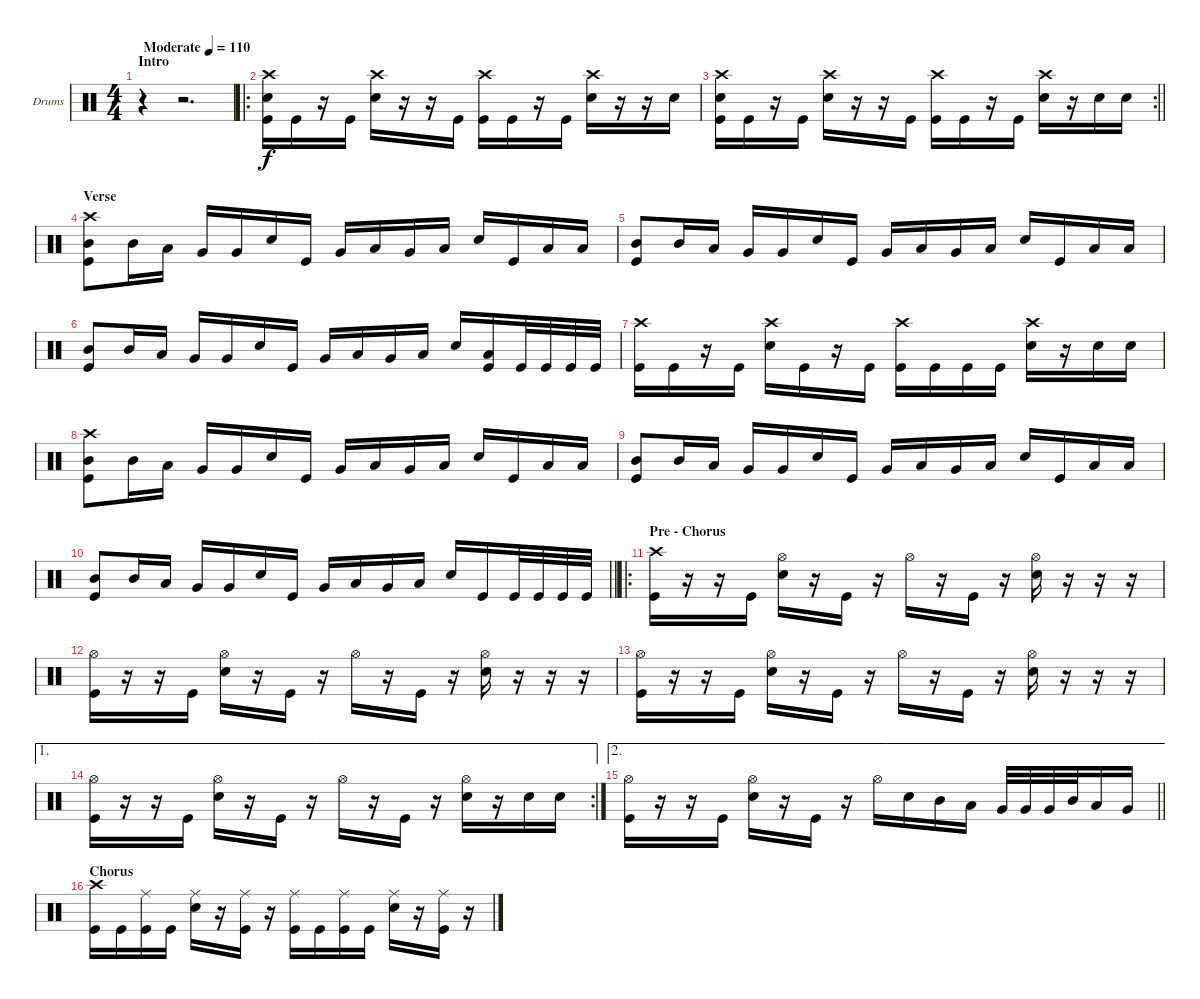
\bracketExtendMode groupsimilarinstruments
\firstSystemTrackNameOrientation horizontal
\otherSystemsTrackNameOrientation horizontal
\track ("Drumkit" "Drums") {instrument percussion}
\staff {score}
\articulation defaults
\ts (4 4)
\beaming (8 2 2 2 2)
\section ("" "Intro")
\tempo (110 "Moderate")
\clef neutral
\ks c
r.4{dy f} r.2{d} |
\ro
("Crash high (hit)" "Snare (hit) 2" "Kick (hit)").16 "Kick (hit)".16 r.16 "Kick (hit)".16 ("Crash high (hit)" "Snare (hit) 2").16 r.16 r.16 "Kick (hit)".16 ("Crash high (hit)" "Kick (hit)").16 "Kick (hit)".16 r.16 "Kick (hit)".16 ("Crash high (hit)" "Snare (hit) 2").16 r.16 r.16 "Snare (hit) 2".16 |
\rc 2
\barLineRight lightlight
("Crash high (hit)" "Snare (hit) 2" "Kick (hit)").16 "Kick (hit)".16 r.16 "Kick (hit)".16 ("Crash high (hit)" "Snare (hit) 2").16 r.16 r.16 "Kick (hit)".16 ("Crash high (hit)" "Kick (hit)").16 "Kick (hit)".16 r.16 "Kick (hit)".16 ("Crash high (hit)" "Snare (hit) 2").16 r.16 "Snare (hit) 2".16 "Snare (hit) 2".16 |
\section ("" "Verse")
("Crash high (hit)" "Mid Tom (hit)" "Kick (hit)").8 "Mid Tom (hit)".16 "Low Tom (hit)".16 "Very Low Tom (hit)".16 "Very Low Tom (hit)".16 "Snare (hit) 2".16 "Kick (hit)".16 "Very Low Tom (hit)".16 "Low Tom (hit)".16 "Very Low Tom (hit)".16 "Low Tom (hit)".16 "Snare (hit) 2".16 "Kick (hit)".16 "Low Tom (hit)".16 "Low Tom (hit)".16 |
("Mid Tom (hit)" "Kick (hit)").8 "Mid Tom (hit)".16 "Low Tom (hit)".16 "Very Low Tom (hit)".16 "Very Low Tom (hit)".16 "Snare (hit) 2".16 "Kick (hit)".16 "Very Low Tom (hit)".16 "Low Tom (hit)".16 "Very Low Tom (hit)".16 "Low Tom (hit)".16 "Snare (hit) 2".16 "Kick (hit)".16 "Low Tom (hit)".16 "Low Tom (hit)".16 |
("Mid Tom (hit)" "Kick (hit)").8 "Mid Tom (hit)".16 "Low Tom (hit)".16 "Very Low Tom (hit)".16 "Very Low Tom (hit)".16 "Snare (hit) 2".16 "Kick (hit)".16 "Very Low Tom (hit)".16 "Low Tom (hit)".16 "Very Low Tom (hit)".16 "Low Tom (hit)".16 "Snare (hit) 2".16 ("Low Tom (hit)" "Kick (hit)").16 "Kick (hit)".32 "Kick (hit)".32 "Kick (hit)".32 "Kick (hit)".32 |
("Crash high (hit)" "Kick (hit)").16 "Kick (hit)".16 r.16 "Kick (hit)".16 ("Crash high (hit)" "Snare (hit) 2").16 "Kick (hit)".16 r.16 "Kick (hit)".16 ("Crash high (hit)" "Kick (hit)").16 "Kick (hit)".16 "Kick (hit)".16 "Kick (hit)".16 ("Crash high (hit)" "Snare (hit) 2").16 r.16 "Snare (hit) 2".16 "Snare (hit) 2".16 |
("Crash high (hit)" "Mid Tom (hit)" "Kick (hit)").8 "Mid Tom (hit)".16 "Low Tom (hit)".16 "Very Low Tom (hit)".16 "Very Low Tom (hit)".16 "Snare (hit) 2".16 "Kick (hit)".16 "Very Low Tom (hit)".16 "Low Tom (hit)".16 "Very Low Tom (hit)".16 "Low Tom (hit)".16 "Snare (hit) 2".16 "Kick (hit)".16 "Low Tom (hit)".16 "Low Tom (hit)".16 |
("Mid Tom (hit)" "Kick (hit)").8 "Mid Tom (hit)".16 "Low Tom (hit)".16 "Very Low Tom (hit)".16 "Very Low Tom (hit)".16 "Snare (hit) 2".16 "Kick (hit)".16 "Very Low Tom (hit)".16 "Low Tom (hit)".16 "Very Low Tom (hit)".16 "Low Tom (hit)".16 "Snare (hit) 2".16 "Kick (hit)".16 "Low Tom (hit)".16 "Low Tom (hit)".16 |
\barLineRight lightlight
("Mid Tom (hit)" "Kick (hit)").8 "Mid Tom (hit)".16 "Low Tom (hit)".16 "Very Low Tom (hit)".16 "Very Low Tom (hit)".16 "Snare (hit) 2".16 "Kick (hit)".16 "Very Low Tom (hit)".16 "Low Tom (hit)".16 "Very Low Tom (hit)".16 "Low Tom (hit)".16 "Snare (hit) 2".16 "Kick (hit)".16 "Kick (hit)".32 "Kick (hit)".32 "Kick (hit)".32 "Kick (hit)".32 |
\ro
\section ("" "Pre - Chorus")
("Crash high (hit)" "Kick (hit)").16 r.16 r.16 "Kick (hit)".16 ("Hi-Hat (open)" "Snare (hit) 2").16 r.16 "Kick (hit)".16 r.16 "Hi-Hat (open)".16 r.16 "Kick (hit)".16 r.16 ("Hi-Hat (open)" "Snare (hit) 2").16 r.16 r.16 r.16 |
("Hi-Hat (open)" "Kick (hit)").16 r.16 r.16 "Kick (hit)".16 ("Hi-Hat (open)" "Snare (hit) 2").16 r.16 "Kick (hit)".16 r.16 "Hi-Hat (open)".16 r.16 "Kick (hit)".16 r.16 ("Hi-Hat (open)" "Snare (hit) 2").16 r.16 r.16 r.16 |
("Hi-Hat (open)" "Kick (hit)").16 r.16 r.16 "Kick (hit)".16 ("Hi-Hat (open)" "Snare (hit) 2").16 r.16 "Kick (hit)".16 r.16 "Hi-Hat (open)".16 r.16 "Kick (hit)".16 r.16 ("Hi-Hat (open)" "Snare (hit) 2").16 r.16 r.16 r.16 |
\ae 1
\rc 2
("Hi-Hat (open)" "Kick (hit)").16 r.16 r.16 "Kick (hit)".16 ("Hi-Hat (open)" "Snare (hit) 2").16 r.16 "Kick (hit)".16 r.16 "Hi-Hat (open)".16 r.16 "Kick (hit)".16 r.16 ("Hi-Hat (open)" "Snare (hit) 2").16 r.16 "Snare (hit) 2".16 "Snare (hit) 2".16 |
\ae 2
\barLineRight lightlight
("Hi-Hat (open)" "Kick (hit)").16 r.16 r.16 "Kick (hit)".16 ("Hi-Hat (open)" "Snare (hit) 2").16 r.16 "Kick (hit)".16 r.16 "Hi-Hat (open)".16 "Snare (hit) 2".16 "Mid Tom (hit)".16 "Low Tom (hit)".16 "Very Low Tom (hit)".32 "Very Low Tom (hit)".32 "Very Low Tom (hit)".32 "Mid Tom (hit)".32 "Low Tom (hit)".16 "Very Low Tom (hit)".16 |
\section ("" "Chorus")
("Crash high (hit)" "Kick (hit)").16 "Kick (hit)".16 ("Ride (middle)" "Kick (hit)").16 "Kick (hit)".16 ("Ride (middle)" "Snare (hit) 2").16 r.16 ("Ride (middle)" "Kick (hit)").16 r.16 ("Ride (middle)" "Kick (hit)").16 "Kick (hit)".16 ("Ride (middle)" "Kick (hit)").16 "Kick (hit)".16 ("Ride (middle)" "Snare (hit) 2").16 r.16 ("Ride (middle)" "Kick (hit)").16 r.16
